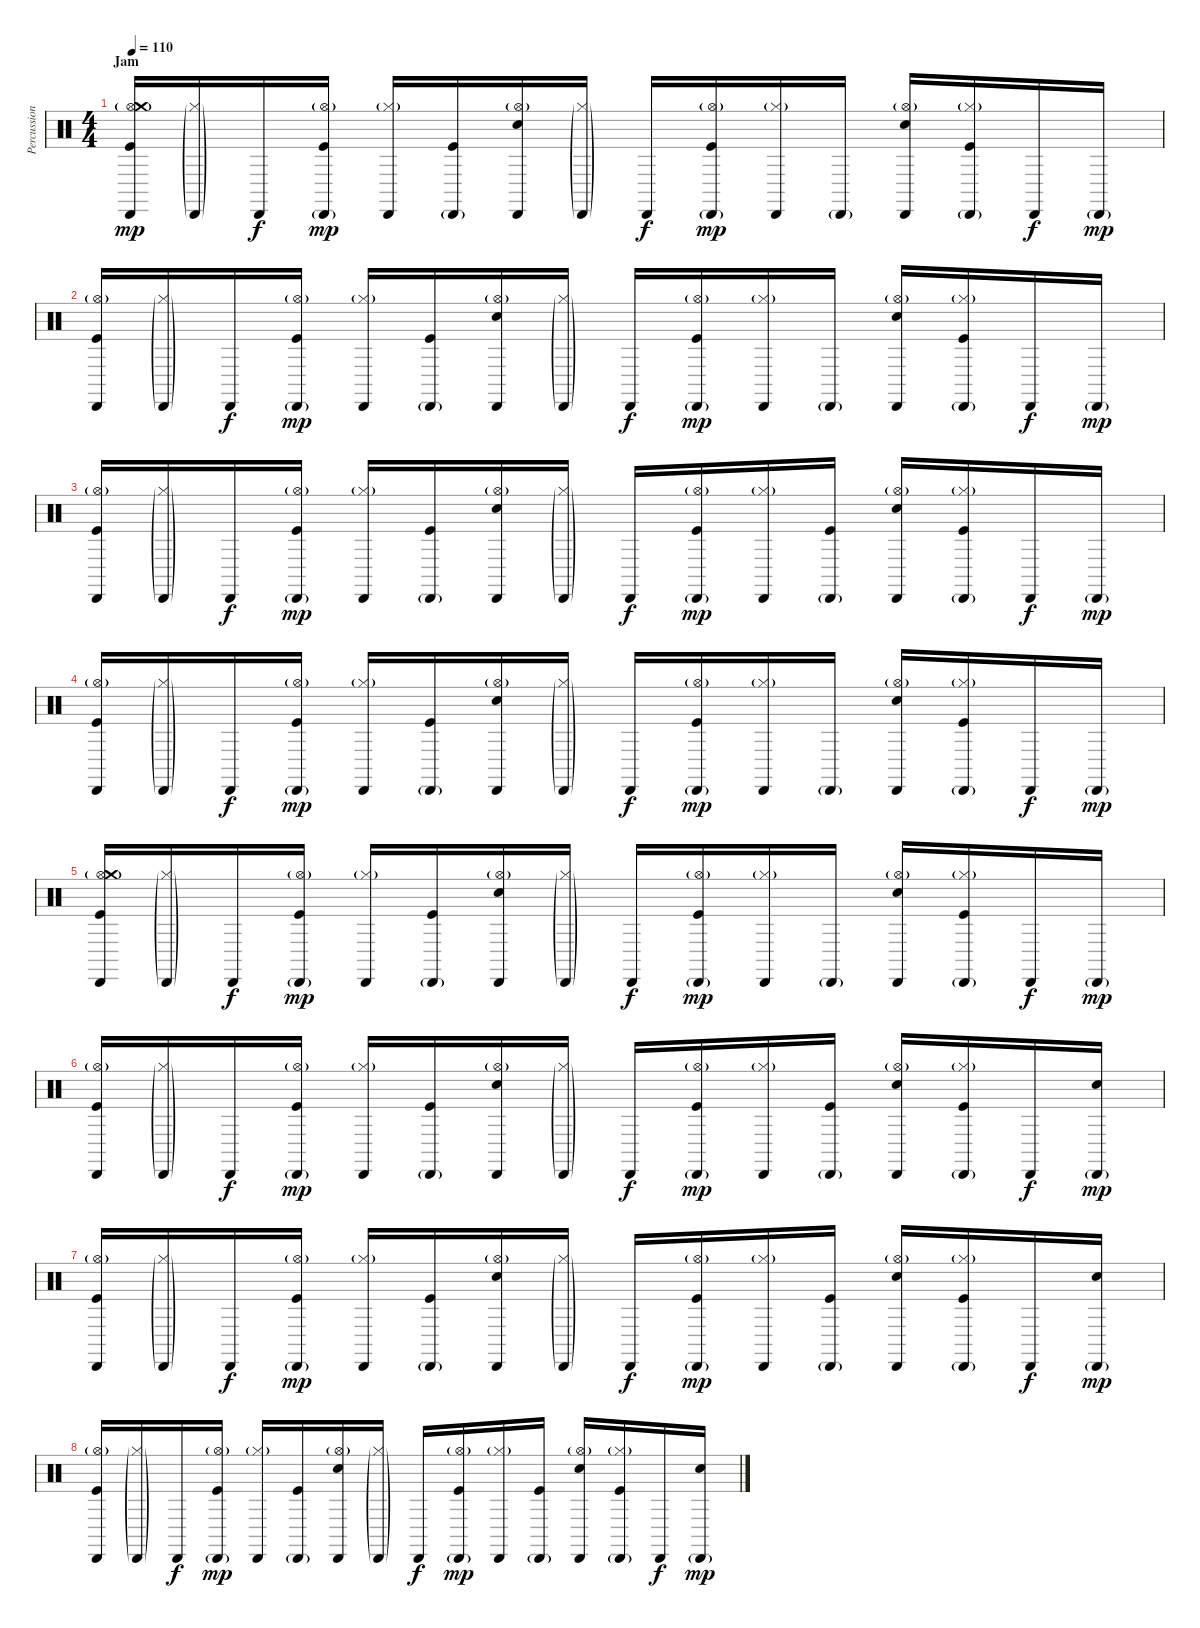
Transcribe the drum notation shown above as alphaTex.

\track ("Percussion" "Percussion") {instrument percussion}
\staff {score}
\articulation defaults
\ts (4 4)
\section ("" "Jam")
\tempo 110
\clef neutral
\ks c
("Cabasa (hit)" "Hi-Hat (open)"{g} "Crash medium (hit)"{g} "Kick (hit)").16{dy mp} ("Cabasa (hit)"{g} "Hi-Hat (closed)"{g}).16 "Cabasa (hit)".16{dy f} ("Cabasa (hit)"{g} "Hi-Hat (open)"{g} "Kick (hit)").16{dy mp} ("Cabasa (hit)" "Hi-Hat (closed)"{g}).16 ("Cabasa (hit)"{g} "Kick (hit)").16 ("Cabasa (hit)" "Hi-Hat (open)"{g} "Snare (hit) 2").16 ("Cabasa (hit)"{g} "Hi-Hat (closed)"{g}).16 "Cabasa (hit)".16{dy f} ("Cabasa (hit)"{g} "Hi-Hat (open)"{g} "Kick (hit)").16{dy mp} ("Cabasa (hit)" "Hi-Hat (closed)"{g}).16 "Cabasa (hit)"{g}.16 ("Cabasa (hit)" "Hi-Hat (open)"{g} "Snare (hit) 2").16 ("Cabasa (hit)"{g} "Hi-Hat (closed)"{g} "Kick (hit)").16 "Cabasa (hit)".16{dy f} "Cabasa (hit)"{g}.16{dy mp} |
("Cabasa (hit)" "Hi-Hat (open)"{g} "Kick (hit)").16 ("Cabasa (hit)"{g} "Hi-Hat (closed)"{g}).16 "Cabasa (hit)".16{dy f} ("Cabasa (hit)"{g} "Hi-Hat (open)"{g} "Kick (hit)").16{dy mp} ("Cabasa (hit)" "Hi-Hat (closed)"{g}).16 ("Cabasa (hit)"{g} "Kick (hit)").16 ("Cabasa (hit)" "Hi-Hat (open)"{g} "Snare (hit) 2").16 ("Cabasa (hit)"{g} "Hi-Hat (closed)"{g}).16 "Cabasa (hit)".16{dy f} ("Cabasa (hit)"{g} "Hi-Hat (open)"{g} "Kick (hit)").16{dy mp} ("Cabasa (hit)" "Hi-Hat (closed)"{g}).16 "Cabasa (hit)"{g}.16 ("Cabasa (hit)" "Hi-Hat (open)"{g} "Snare (hit) 2").16 ("Cabasa (hit)"{g} "Hi-Hat (closed)"{g} "Kick (hit)").16 "Cabasa (hit)".16{dy f} "Cabasa (hit)"{g}.16{dy mp} |
("Cabasa (hit)" "Hi-Hat (open)"{g} "Kick (hit)").16 ("Cabasa (hit)"{g} "Hi-Hat (closed)"{g}).16 "Cabasa (hit)".16{dy f} ("Cabasa (hit)"{g} "Hi-Hat (open)"{g} "Kick (hit)").16{dy mp} ("Cabasa (hit)" "Hi-Hat (closed)"{g}).16 ("Cabasa (hit)"{g} "Kick (hit)").16 ("Cabasa (hit)" "Hi-Hat (open)"{g} "Snare (hit) 2").16 ("Cabasa (hit)"{g} "Hi-Hat (closed)"{g}).16 "Cabasa (hit)".16{dy f} ("Cabasa (hit)"{g} "Hi-Hat (open)"{g} "Kick (hit)").16{dy mp} ("Cabasa (hit)" "Hi-Hat (closed)"{g}).16 ("Cabasa (hit)"{g} "Kick (hit)").16 ("Cabasa (hit)" "Hi-Hat (open)"{g} "Snare (hit) 2").16 ("Cabasa (hit)"{g} "Hi-Hat (closed)"{g} "Kick (hit)").16 "Cabasa (hit)".16{dy f} "Cabasa (hit)"{g}.16{dy mp} |
("Cabasa (hit)" "Hi-Hat (open)"{g} "Kick (hit)").16 ("Cabasa (hit)"{g} "Hi-Hat (closed)"{g}).16 "Cabasa (hit)".16{dy f} ("Cabasa (hit)"{g} "Hi-Hat (open)"{g} "Kick (hit)").16{dy mp} ("Cabasa (hit)" "Hi-Hat (closed)"{g}).16 ("Cabasa (hit)"{g} "Kick (hit)").16 ("Cabasa (hit)" "Hi-Hat (open)"{g} "Snare (hit) 2").16 ("Cabasa (hit)"{g} "Hi-Hat (closed)"{g}).16 "Cabasa (hit)".16{dy f} ("Cabasa (hit)"{g} "Hi-Hat (open)"{g} "Kick (hit)").16{dy mp} ("Cabasa (hit)" "Hi-Hat (closed)"{g}).16 "Cabasa (hit)"{g}.16 ("Cabasa (hit)" "Hi-Hat (open)"{g} "Snare (hit) 2").16 ("Cabasa (hit)"{g} "Hi-Hat (closed)"{g} "Kick (hit)").16 "Cabasa (hit)".16{dy f} "Cabasa (hit)"{g}.16{dy mp} |
("Cabasa (hit)" "Hi-Hat (open)"{g} "Crash medium (hit)" "Kick (hit)").16 ("Cabasa (hit)"{g} "Hi-Hat (closed)"{g}).16 "Cabasa (hit)".16{dy f} ("Cabasa (hit)"{g} "Hi-Hat (open)"{g} "Kick (hit)").16{dy mp} ("Cabasa (hit)" "Hi-Hat (closed)"{g}).16 ("Cabasa (hit)"{g} "Kick (hit)").16 ("Cabasa (hit)" "Hi-Hat (open)"{g} "Snare (hit) 2").16 ("Cabasa (hit)"{g} "Hi-Hat (closed)"{g}).16 "Cabasa (hit)".16{dy f} ("Cabasa (hit)"{g} "Hi-Hat (open)"{g} "Kick (hit)").16{dy mp} ("Cabasa (hit)" "Hi-Hat (closed)"{g}).16 "Cabasa (hit)"{g}.16 ("Cabasa (hit)" "Hi-Hat (open)"{g} "Snare (hit) 2").16 ("Cabasa (hit)"{g} "Hi-Hat (closed)"{g} "Kick (hit)").16 "Cabasa (hit)".16{dy f} "Cabasa (hit)"{g}.16{dy mp} |
("Cabasa (hit)" "Hi-Hat (open)"{g} "Kick (hit)").16 ("Cabasa (hit)"{g} "Hi-Hat (closed)"{g}).16 "Cabasa (hit)".16{dy f} ("Cabasa (hit)"{g} "Hi-Hat (open)"{g} "Kick (hit)").16{dy mp} ("Cabasa (hit)" "Hi-Hat (closed)"{g}).16 ("Cabasa (hit)"{g} "Kick (hit)").16 ("Cabasa (hit)" "Hi-Hat (open)"{g} "Snare (hit) 2").16 ("Cabasa (hit)"{g} "Hi-Hat (closed)"{g}).16 "Cabasa (hit)".16{dy f} ("Cabasa (hit)"{g} "Hi-Hat (open)"{g} "Kick (hit)").16{dy mp} ("Cabasa (hit)" "Hi-Hat (closed)"{g}).16 ("Cabasa (hit)"{g} "Kick (hit)").16 ("Cabasa (hit)" "Hi-Hat (open)"{g} "Snare (hit) 2").16 ("Cabasa (hit)"{g} "Hi-Hat (closed)"{g} "Kick (hit)").16 "Cabasa (hit)".16{dy f} ("Cabasa (hit)"{g} "Snare (hit) 2").16{dy mp} |
("Cabasa (hit)" "Hi-Hat (open)"{g} "Kick (hit)").16 ("Cabasa (hit)"{g} "Hi-Hat (closed)"{g}).16 "Cabasa (hit)".16{dy f} ("Cabasa (hit)"{g} "Hi-Hat (open)"{g} "Kick (hit)").16{dy mp} ("Cabasa (hit)" "Hi-Hat (closed)"{g}).16 ("Cabasa (hit)"{g} "Kick (hit)").16 ("Cabasa (hit)" "Hi-Hat (open)"{g} "Snare (hit) 2").16 ("Cabasa (hit)"{g} "Hi-Hat (closed)"{g}).16 "Cabasa (hit)".16{dy f} ("Cabasa (hit)"{g} "Hi-Hat (open)"{g} "Kick (hit)").16{dy mp} ("Cabasa (hit)" "Hi-Hat (closed)"{g}).16 ("Cabasa (hit)"{g} "Kick (hit)").16 ("Cabasa (hit)" "Hi-Hat (open)"{g} "Snare (hit) 2").16 ("Cabasa (hit)"{g} "Hi-Hat (closed)"{g} "Kick (hit)").16 "Cabasa (hit)".16{dy f} ("Cabasa (hit)"{g} "Snare (hit) 2").16{dy mp} |
("Cabasa (hit)" "Hi-Hat (open)"{g} "Kick (hit)").16 ("Cabasa (hit)"{g} "Hi-Hat (closed)"{g}).16 "Cabasa (hit)".16{dy f} ("Cabasa (hit)"{g} "Hi-Hat (open)"{g} "Kick (hit)").16{dy mp} ("Cabasa (hit)" "Hi-Hat (closed)"{g}).16 ("Cabasa (hit)"{g} "Kick (hit)").16 ("Cabasa (hit)" "Hi-Hat (open)"{g} "Snare (hit) 2").16 ("Cabasa (hit)"{g} "Hi-Hat (closed)"{g}).16 "Cabasa (hit)".16{dy f} ("Cabasa (hit)"{g} "Hi-Hat (open)"{g} "Kick (hit)").16{dy mp} ("Cabasa (hit)" "Hi-Hat (closed)"{g}).16 ("Cabasa (hit)"{g} "Kick (hit)").16 ("Cabasa (hit)" "Hi-Hat (open)"{g} "Snare (hit) 2").16 ("Cabasa (hit)"{g} "Hi-Hat (closed)"{g} "Kick (hit)").16 "Cabasa (hit)".16{dy f} ("Cabasa (hit)"{g} "Snare (hit) 2").16{dy mp}
